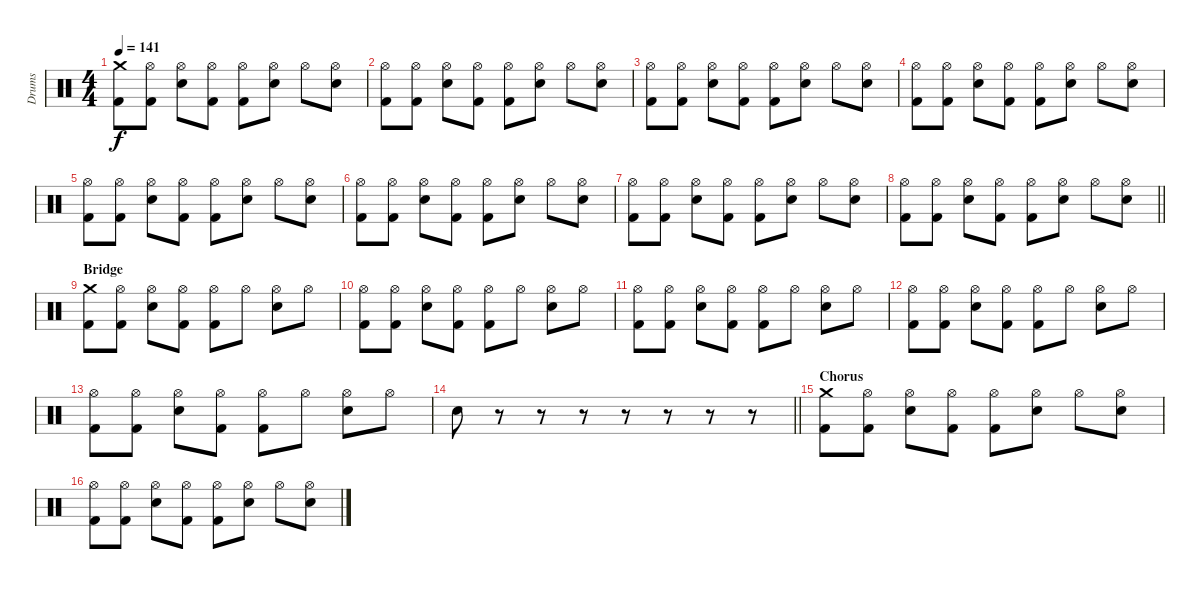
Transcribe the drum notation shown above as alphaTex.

\track ("Drums" "Drums") {instrument percussion}
\staff {score}
\articulation defaults
\ts (4 4)
\tempo 141
\clef neutral
\ks c
("Crash medium (hit)" "Kick (hit) 2").8{dy f} ("Hi-Hat (open)" "Kick (hit) 2").8 ("Hi-Hat (open)" "Electric Snare (hit)").8 ("Hi-Hat (open)" "Kick (hit) 2").8 ("Hi-Hat (open)" "Kick (hit) 2").8 ("Hi-Hat (open)" "Electric Snare (hit)").8 "Hi-Hat (open)".8 ("Hi-Hat (open)" "Electric Snare (hit)").8 |
("Hi-Hat (open)" "Kick (hit) 2").8 ("Hi-Hat (open)" "Kick (hit) 2").8 ("Hi-Hat (open)" "Electric Snare (hit)").8 ("Hi-Hat (open)" "Kick (hit) 2").8 ("Hi-Hat (open)" "Kick (hit) 2").8 ("Hi-Hat (open)" "Electric Snare (hit)").8 "Hi-Hat (open)".8 ("Hi-Hat (open)" "Electric Snare (hit)").8 |
("Hi-Hat (open)" "Kick (hit) 2").8 ("Hi-Hat (open)" "Kick (hit) 2").8 ("Hi-Hat (open)" "Electric Snare (hit)").8 ("Hi-Hat (open)" "Kick (hit) 2").8 ("Hi-Hat (open)" "Kick (hit) 2").8 ("Hi-Hat (open)" "Electric Snare (hit)").8 "Hi-Hat (open)".8 ("Hi-Hat (open)" "Electric Snare (hit)").8 |
("Hi-Hat (open)" "Kick (hit) 2").8 ("Hi-Hat (open)" "Kick (hit) 2").8 ("Hi-Hat (open)" "Electric Snare (hit)").8 ("Hi-Hat (open)" "Kick (hit) 2").8 ("Hi-Hat (open)" "Kick (hit) 2").8 ("Hi-Hat (open)" "Electric Snare (hit)").8 "Hi-Hat (open)".8 ("Hi-Hat (open)" "Electric Snare (hit)").8 |
("Hi-Hat (open)" "Kick (hit) 2").8 ("Hi-Hat (open)" "Kick (hit) 2").8 ("Hi-Hat (open)" "Electric Snare (hit)").8 ("Hi-Hat (open)" "Kick (hit) 2").8 ("Hi-Hat (open)" "Kick (hit) 2").8 ("Hi-Hat (open)" "Electric Snare (hit)").8 "Hi-Hat (open)".8 ("Hi-Hat (open)" "Electric Snare (hit)").8 |
("Hi-Hat (open)" "Kick (hit) 2").8 ("Hi-Hat (open)" "Kick (hit) 2").8 ("Hi-Hat (open)" "Electric Snare (hit)").8 ("Hi-Hat (open)" "Kick (hit) 2").8 ("Hi-Hat (open)" "Kick (hit) 2").8 ("Hi-Hat (open)" "Electric Snare (hit)").8 "Hi-Hat (open)".8 ("Hi-Hat (open)" "Electric Snare (hit)").8 |
("Hi-Hat (open)" "Kick (hit) 2").8 ("Hi-Hat (open)" "Kick (hit) 2").8 ("Hi-Hat (open)" "Electric Snare (hit)").8 ("Hi-Hat (open)" "Kick (hit) 2").8 ("Hi-Hat (open)" "Kick (hit) 2").8 ("Hi-Hat (open)" "Electric Snare (hit)").8 "Hi-Hat (open)".8 ("Hi-Hat (open)" "Electric Snare (hit)").8 |
\barLineRight lightlight
("Hi-Hat (open)" "Kick (hit) 2").8 ("Hi-Hat (open)" "Kick (hit) 2").8 ("Hi-Hat (open)" "Electric Snare (hit)").8 ("Hi-Hat (open)" "Kick (hit) 2").8 ("Hi-Hat (open)" "Kick (hit) 2").8 ("Hi-Hat (open)" "Electric Snare (hit)").8 "Hi-Hat (open)".8 ("Hi-Hat (open)" "Electric Snare (hit)").8 |
\section ("" "Bridge")
("Crash medium (hit)" "Kick (hit) 2").8 ("Hi-Hat (open)" "Kick (hit) 2").8 ("Hi-Hat (open)" "Electric Snare (hit)").8 ("Hi-Hat (open)" "Kick (hit) 2").8 ("Hi-Hat (open)" "Kick (hit) 2").8 "Hi-Hat (open)".8 ("Hi-Hat (open)" "Electric Snare (hit)").8 "Hi-Hat (open)".8 |
("Hi-Hat (open)" "Kick (hit) 2").8 ("Hi-Hat (open)" "Kick (hit) 2").8 ("Hi-Hat (open)" "Electric Snare (hit)").8 ("Hi-Hat (open)" "Kick (hit) 2").8 ("Hi-Hat (open)" "Kick (hit) 2").8 "Hi-Hat (open)".8 ("Hi-Hat (open)" "Electric Snare (hit)").8 "Hi-Hat (open)".8 |
("Hi-Hat (open)" "Kick (hit) 2").8 ("Hi-Hat (open)" "Kick (hit) 2").8 ("Hi-Hat (open)" "Electric Snare (hit)").8 ("Hi-Hat (open)" "Kick (hit) 2").8 ("Hi-Hat (open)" "Kick (hit) 2").8 "Hi-Hat (open)".8 ("Hi-Hat (open)" "Electric Snare (hit)").8 "Hi-Hat (open)".8 |
("Hi-Hat (open)" "Kick (hit) 2").8 ("Hi-Hat (open)" "Kick (hit) 2").8 ("Hi-Hat (open)" "Electric Snare (hit)").8 ("Hi-Hat (open)" "Kick (hit) 2").8 ("Hi-Hat (open)" "Kick (hit) 2").8 "Hi-Hat (open)".8 ("Hi-Hat (open)" "Electric Snare (hit)").8 "Hi-Hat (open)".8 |
("Hi-Hat (open)" "Kick (hit) 2").8 ("Hi-Hat (open)" "Kick (hit) 2").8 ("Hi-Hat (open)" "Electric Snare (hit)").8 ("Hi-Hat (open)" "Kick (hit) 2").8 ("Hi-Hat (open)" "Kick (hit) 2").8 "Hi-Hat (open)".8 ("Hi-Hat (open)" "Electric Snare (hit)").8 "Hi-Hat (open)".8 |
\barLineRight lightlight "Electric Snare (hit)".8
r.8 r.8 r.8 r.8 r.8 r.8 r.8 |
\section ("" "Chorus")
("Crash medium (hit)" "Kick (hit) 2").8 ("Hi-Hat (open)" "Kick (hit) 2").8 ("Hi-Hat (open)" "Electric Snare (hit)").8 ("Hi-Hat (open)" "Kick (hit) 2").8 ("Hi-Hat (open)" "Kick (hit) 2").8 ("Hi-Hat (open)" "Electric Snare (hit)").8 "Hi-Hat (open)".8 ("Hi-Hat (open)" "Electric Snare (hit)").8 |
("Hi-Hat (open)" "Kick (hit) 2").8 ("Hi-Hat (open)" "Kick (hit) 2").8 ("Hi-Hat (open)" "Electric Snare (hit)").8 ("Hi-Hat (open)" "Kick (hit) 2").8 ("Hi-Hat (open)" "Kick (hit) 2").8 ("Hi-Hat (open)" "Electric Snare (hit)").8 "Hi-Hat (open)".8 ("Hi-Hat (open)" "Electric Snare (hit)").8
